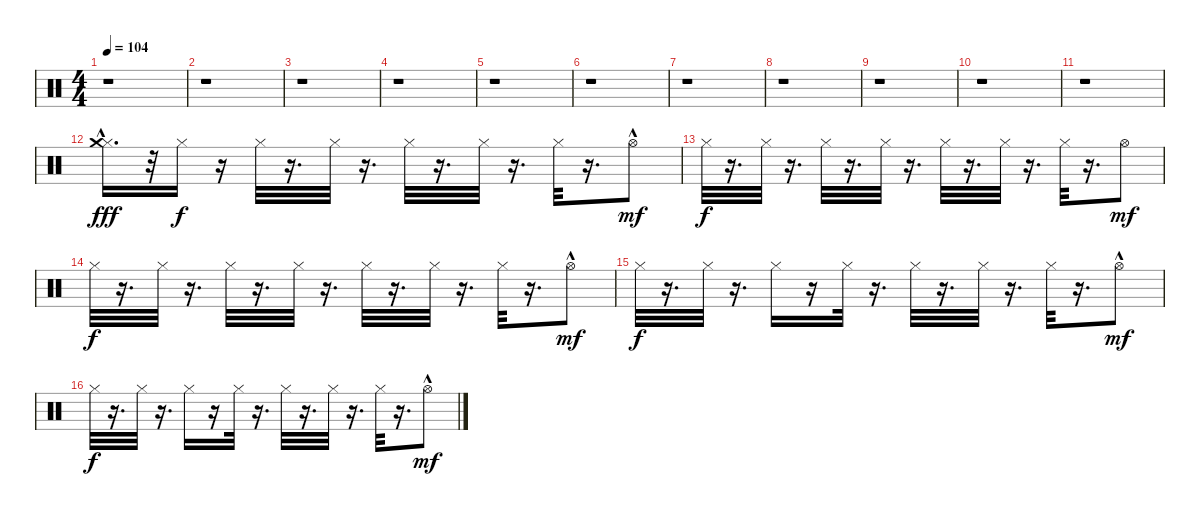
\track "" {instrument percussion}
\staff {score}
\articulation defaults
\ts (4 4)
\tempo 104
\clef neutral
\ks c
r.1{dy fff} |
r.1 |
r.1 |
r.1 |
r.1 |
r.1 |
r.1 |
r.1 |
r.1 |
r.1 |
r.1 |
("Hi-Hat (closed)"{hac} "Crash medium (hit)"{hac}).16{d} r.32 "Hi-Hat (closed)".16{dy f} r.16 "Hi-Hat (closed)".32 r.16{d} "Hi-Hat (closed)".32 r.16{d} "Hi-Hat (closed)".32 r.16{d} "Hi-Hat (closed)".32 r.16{d} "Hi-Hat (closed)".32 r.16{d} "Hi-Hat (open)"{hac}.8{dy mf} |
"Hi-Hat (closed)".32{dy f} r.16{d} "Hi-Hat (closed)".32 r.16{d} "Hi-Hat (closed)".32 r.16{d} "Hi-Hat (closed)".32 r.16{d} "Hi-Hat (closed)".32 r.16{d} "Hi-Hat (closed)".32 r.16{d} "Hi-Hat (closed)".32 r.16{d} "Hi-Hat (open)".8{dy mf} |
"Hi-Hat (closed)".32{dy f} r.16{d} "Hi-Hat (closed)".32 r.16{d} "Hi-Hat (closed)".32 r.16{d} "Hi-Hat (closed)".32 r.16{d} "Hi-Hat (closed)".32 r.16{d} "Hi-Hat (closed)".32 r.16{d} "Hi-Hat (closed)".32 r.16{d} "Hi-Hat (open)"{hac}.8{dy mf} |
"Hi-Hat (closed)".32{dy f} r.16{d} "Hi-Hat (closed)".32 r.16{d} "Hi-Hat (closed)".16 r.16 "Hi-Hat (closed)".32 r.16{d} "Hi-Hat (closed)".32 r.16{d} "Hi-Hat (closed)".32 r.16{d} "Hi-Hat (closed)".32 r.16{d} "Hi-Hat (open)"{hac}.8{dy mf} |
"Hi-Hat (closed)".32{dy f} r.16{d} "Hi-Hat (closed)".32 r.16{d} "Hi-Hat (closed)".16 r.16 "Hi-Hat (closed)".32 r.16{d} "Hi-Hat (closed)".32 r.16{d} "Hi-Hat (closed)".32 r.16{d} "Hi-Hat (closed)".32 r.16{d} "Hi-Hat (open)"{hac}.8{dy mf}
